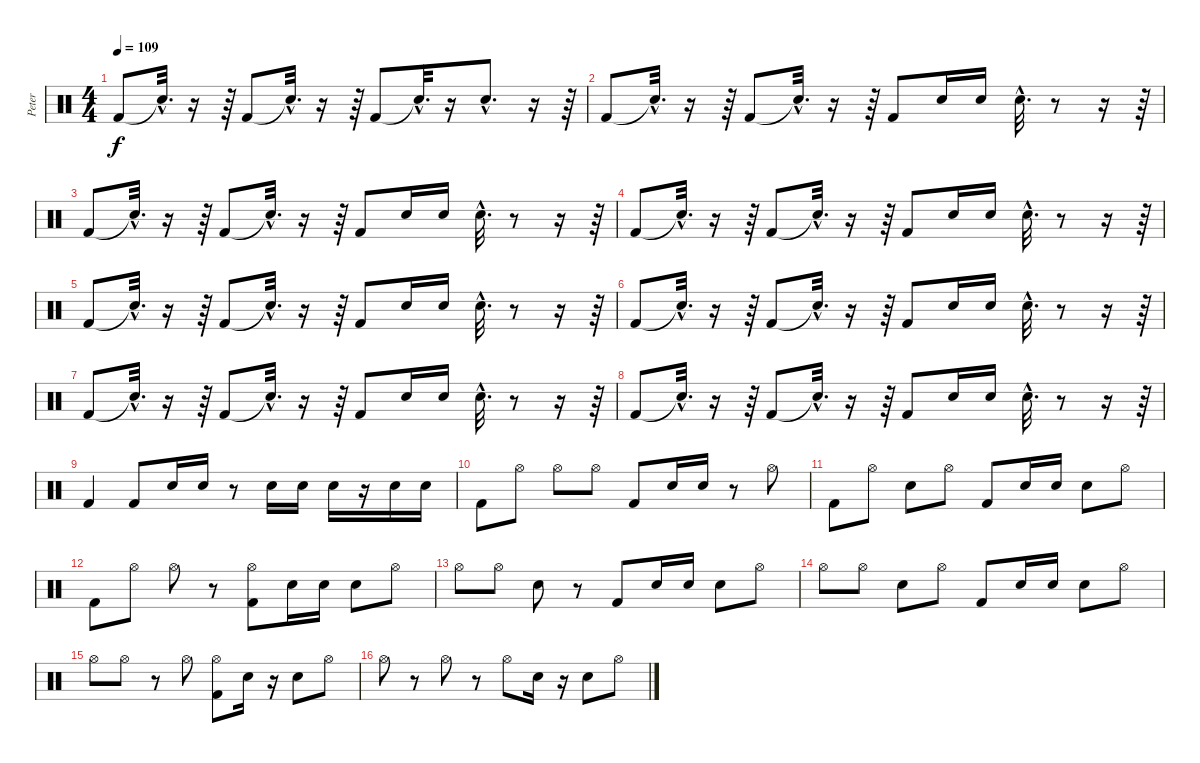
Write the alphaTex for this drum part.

\track ("Peter" "Peter") {instrument percussion}
\staff {score}
\articulation defaults
\ts (4 4)
\tempo 109
\clef neutral
\ks c "Kick (hit) 2".8{dy f} "Snare (hit)"{hac t}.32{d}
r.16 r.64 "Kick (hit) 2".8 "Snare (hit)"{hac t}.32{d} r.16 r.64 "Kick (hit) 2".8 "Snare (hit)"{hac t}.32{d} r.16 "Electric Snare (hit)"{hac}.8{d} r.16 r.64 |
"Kick (hit) 2".8 "Snare (hit)"{hac t}.32{d} r.16 r.64 "Kick (hit) 2".8 "Snare (hit)"{hac t}.32{d} r.16 r.64 "Kick (hit) 2".8 "Electric Snare (hit)".16 "Electric Snare (hit)".16 "Electric Snare (hit)"{hac}.32{d} r.8 r.16 r.64 |
"Kick (hit) 2".8 "Snare (hit)"{hac t}.32{d} r.16 r.64 "Kick (hit) 2".8 "Snare (hit)"{hac t}.32{d} r.16 r.64 "Kick (hit) 2".8 "Electric Snare (hit)".16 "Electric Snare (hit)".16 "Electric Snare (hit)"{hac}.32{d} r.8 r.16 r.64 |
"Kick (hit) 2".8 "Snare (hit)"{hac t}.32{d} r.16 r.64 "Kick (hit) 2".8 "Snare (hit)"{hac t}.32{d} r.16 r.64 "Kick (hit) 2".8 "Electric Snare (hit)".16 "Electric Snare (hit)".16 "Electric Snare (hit)"{hac}.32{d} r.8 r.16 r.64 |
"Kick (hit) 2".8 "Snare (hit)"{hac t}.32{d} r.16 r.64 "Kick (hit) 2".8 "Snare (hit)"{hac t}.32{d} r.16 r.64 "Kick (hit) 2".8 "Electric Snare (hit)".16 "Electric Snare (hit)".16 "Electric Snare (hit)"{hac}.32{d} r.8 r.16 r.64 |
"Kick (hit) 2".8 "Snare (hit)"{hac t}.32{d} r.16 r.64 "Kick (hit) 2".8 "Snare (hit)"{hac t}.32{d} r.16 r.64 "Kick (hit) 2".8 "Electric Snare (hit)".16 "Electric Snare (hit)".16 "Electric Snare (hit)"{hac}.32{d} r.8 r.16 r.64 |
"Kick (hit) 2".8 "Snare (hit)"{hac t}.32{d} r.16 r.64 "Kick (hit) 2".8 "Snare (hit)"{hac t}.32{d} r.16 r.64 "Kick (hit) 2".8 "Electric Snare (hit)".16 "Electric Snare (hit)".16 "Electric Snare (hit)"{hac}.32{d} r.8 r.16 r.64 |
"Kick (hit) 2".8 "Snare (hit)"{hac t}.32{d} r.16 r.64 "Kick (hit) 2".8 "Snare (hit)"{hac t}.32{d} r.16 r.64 "Kick (hit) 2".8 "Electric Snare (hit)".16 "Electric Snare (hit)".16 "Electric Snare (hit)"{hac}.32{d} r.8 r.16 r.64 |
"Kick (hit) 2".4 "Kick (hit) 2".8 "Electric Snare (hit)".16 "Electric Snare (hit)".16 r.8 "Electric Snare (hit)".16 "Electric Snare (hit)".16 "Electric Snare (hit)".16 r.16 "Electric Snare (hit)".16 "Electric Snare (hit)".16 |
"Kick (hit) 2".8 "Hi-Hat (open)".8 "Hi-Hat (open)".8 "Hi-Hat (open)".8 "Kick (hit) 2".8 "Electric Snare (hit)".16 "Electric Snare (hit)".16 r.8 "Hi-Hat (open)".8 |
"Kick (hit) 2".8 "Hi-Hat (open)".8 "Electric Snare (hit)".8 "Hi-Hat (open)".8 "Kick (hit) 2".8 "Electric Snare (hit)".16 "Electric Snare (hit)".16 "Electric Snare (hit)".8 "Hi-Hat (open)".8 |
"Kick (hit) 2".8 "Hi-Hat (open)".8 "Hi-Hat (open)".8 r.8 ("Kick (hit) 2" "Hi-Hat (open)").8 "Electric Snare (hit)".16 "Electric Snare (hit)".16 "Electric Snare (hit)".8 "Hi-Hat (open)".8 |
"Hi-Hat (open)".8 "Hi-Hat (open)".8 "Electric Snare (hit)".8 r.8 "Kick (hit) 2".8 "Electric Snare (hit)".16 "Electric Snare (hit)".16 "Electric Snare (hit)".8 "Hi-Hat (open)".8 |
"Hi-Hat (open)".8 "Hi-Hat (open)".8 "Electric Snare (hit)".8 "Hi-Hat (open)".8 "Kick (hit) 2".8 "Electric Snare (hit)".16 "Electric Snare (hit)".16 "Electric Snare (hit)".8 "Hi-Hat (open)".8 |
"Hi-Hat (open)".8 "Hi-Hat (open)".8 r.8 "Hi-Hat (open)".8 ("Kick (hit) 2" "Hi-Hat (open)").8 "Electric Snare (hit)".16 r.16 "Electric Snare (hit)".8 "Hi-Hat (open)".8 |
"Hi-Hat (open)".8 r.8 "Hi-Hat (open)".8 r.8 "Hi-Hat (open)".8 "Electric Snare (hit)".16 r.16 "Electric Snare (hit)".8 "Hi-Hat (open)".8
